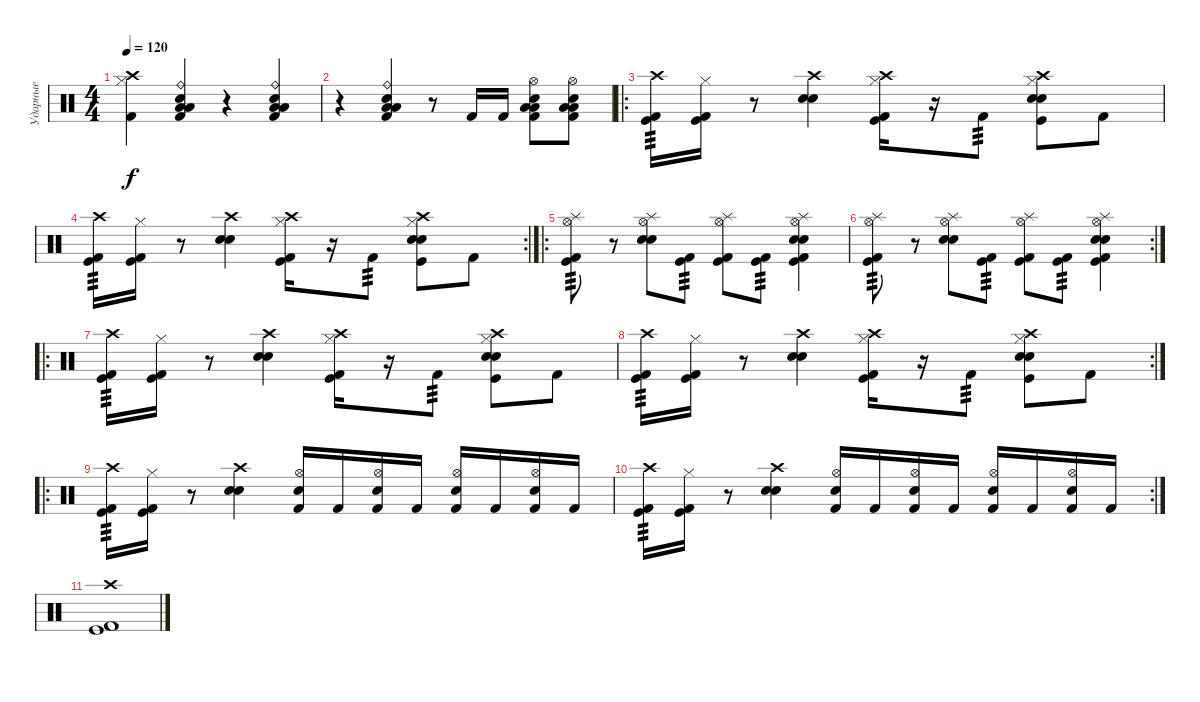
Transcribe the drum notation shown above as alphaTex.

\track ("Ударные" "Ударные") {instrument percussion}
\staff {score}
\articulation defaults
\ts (4 4)
\tempo 120
\clef neutral
\ks c
("Crash high (hit)" "Hi-Hat (closed)" "Kick (hit) 2").4{dy f} ("Ride (bell)" "Low Floor Tom (hit)" "Low Tom (hit)" "Snare (hit) 2" "Kick (hit) 2").4 r.4 ("Ride (bell)" "Low Floor Tom (hit)" "Low Tom (hit)" "Snare (hit) 2" "Kick (hit) 2").4 |
r.4 ("Ride (bell)" "Low Floor Tom (hit)" "Low Tom (hit)" "Snare (hit) 2" "Kick (hit) 2").4 r.8 "Kick (hit) 2".16 "Kick (hit) 2".16 ("Hi-Hat (open)" "Low Floor Tom (hit)" "Low Tom (hit)" "Snare (hit) 2" "Kick (hit) 2").8 ("Hi-Hat (open)" "Low Floor Tom (hit)" "Low Tom (hit)" "Snare (hit) 2" "Kick (hit) 2").8 |
\ro
("Crash high (hit)" "Kick (hit)" "Kick (hit) 2").16{tp 3} ("Kick (hit)" "Hi-Hat (closed)" "Kick (hit) 2").16 r.8 ("Crash high (hit)" "Electric Snare (hit)" "Snare (hit) 2").4 ("Crash high (hit)" "Hi-Hat (closed)" "Kick (hit)" "Kick (hit) 2").16 r.16 "Kick (hit) 2".8{tp 3} ("Crash high (hit)" "Hi-Hat (closed)" "Electric Snare (hit)" "Snare (hit) 2" "Kick (hit)").8 "Kick (hit) 2".8 |
\rc 2
("Crash high (hit)" "Kick (hit)" "Kick (hit) 2").16{tp 3} ("Kick (hit)" "Hi-Hat (closed)" "Kick (hit) 2").16 r.8 ("Crash high (hit)" "Electric Snare (hit)" "Snare (hit) 2").4 ("Crash high (hit)" "Hi-Hat (closed)" "Kick (hit)" "Kick (hit) 2").16 r.16 "Kick (hit) 2".8{tp 3} ("Crash high (hit)" "Hi-Hat (closed)" "Electric Snare (hit)" "Snare (hit) 2" "Kick (hit)").8 "Kick (hit) 2".8 |
\ro
("Hi-Hat (open)" "Splash (hit)" "Kick (hit)" "Kick (hit) 2").8{tp 3} r.8 ("Hi-Hat (open)" "Splash (hit)" "Snare (hit) 2" "Electric Snare (hit)").8 ("Kick (hit)" "Kick (hit) 2").8{tp 3} ("Hi-Hat (open)" "Splash (hit)" "Kick (hit)" "Kick (hit) 2").8 ("Kick (hit)" "Kick (hit) 2").8{tp 3} ("Hi-Hat (open)" "Splash (hit)" "Snare (hit) 2" "Electric Snare (hit)" "Kick (hit)" "Kick (hit) 2").4 |
\rc 2
("Hi-Hat (open)" "Splash (hit)" "Kick (hit)" "Kick (hit) 2").8{tp 3} r.8 ("Hi-Hat (open)" "Splash (hit)" "Snare (hit) 2" "Electric Snare (hit)").8 ("Kick (hit)" "Kick (hit) 2").8{tp 3} ("Hi-Hat (open)" "Splash (hit)" "Kick (hit)" "Kick (hit) 2").8 ("Kick (hit)" "Kick (hit) 2").8{tp 3} ("Hi-Hat (open)" "Splash (hit)" "Snare (hit) 2" "Electric Snare (hit)" "Kick (hit)" "Kick (hit) 2").4 |
\ro
("Crash high (hit)" "Kick (hit)" "Kick (hit) 2").16{tp 3} ("Kick (hit)" "Hi-Hat (closed)" "Kick (hit) 2").16 r.8 ("Crash high (hit)" "Electric Snare (hit)" "Snare (hit) 2").4 ("Crash high (hit)" "Hi-Hat (closed)" "Kick (hit)" "Kick (hit) 2").16 r.16 "Kick (hit) 2".8{tp 3} ("Crash high (hit)" "Hi-Hat (closed)" "Electric Snare (hit)" "Snare (hit) 2" "Kick (hit)").8 "Kick (hit) 2".8 |
\rc 2
("Crash high (hit)" "Kick (hit)" "Kick (hit) 2").16{tp 3} ("Kick (hit)" "Hi-Hat (closed)" "Kick (hit) 2").16 r.8 ("Crash high (hit)" "Electric Snare (hit)" "Snare (hit) 2").4 ("Crash high (hit)" "Hi-Hat (closed)" "Kick (hit)" "Kick (hit) 2").16 r.16 "Kick (hit) 2".8{tp 3} ("Crash high (hit)" "Hi-Hat (closed)" "Electric Snare (hit)" "Snare (hit) 2" "Kick (hit)").8 "Kick (hit) 2".8 |
\ro
("Crash high (hit)" "Kick (hit)" "Kick (hit) 2").16{tp 3} ("Kick (hit)" "Hi-Hat (closed)" "Kick (hit) 2").16 r.8 ("Crash high (hit)" "Electric Snare (hit)" "Snare (hit) 2").4 ("Hi-Hat (open)" "Electric Snare (hit)" "Kick (hit) 2").16 "Kick (hit) 2".16 ("Hi-Hat (open)" "Electric Snare (hit)" "Kick (hit) 2").16 "Kick (hit) 2".16 ("Hi-Hat (open)" "Electric Snare (hit)" "Kick (hit) 2").16 "Kick (hit) 2".16 ("Hi-Hat (open)" "Electric Snare (hit)" "Kick (hit) 2").16 "Kick (hit) 2".16 |
\rc 2
("Crash high (hit)" "Kick (hit)" "Kick (hit) 2").16{tp 3} ("Kick (hit)" "Hi-Hat (closed)" "Kick (hit) 2").16 r.8 ("Crash high (hit)" "Electric Snare (hit)" "Snare (hit) 2").4 ("Hi-Hat (open)" "Electric Snare (hit)" "Kick (hit) 2").16 "Kick (hit) 2".16 ("Hi-Hat (open)" "Electric Snare (hit)" "Kick (hit) 2").16 "Kick (hit) 2".16 ("Hi-Hat (open)" "Electric Snare (hit)" "Kick (hit) 2").16 "Kick (hit) 2".16 ("Hi-Hat (open)" "Electric Snare (hit)" "Kick (hit) 2").16 "Kick (hit) 2".16 |
("Crash high (hit)" "Kick (hit)" "Kick (hit) 2").1
